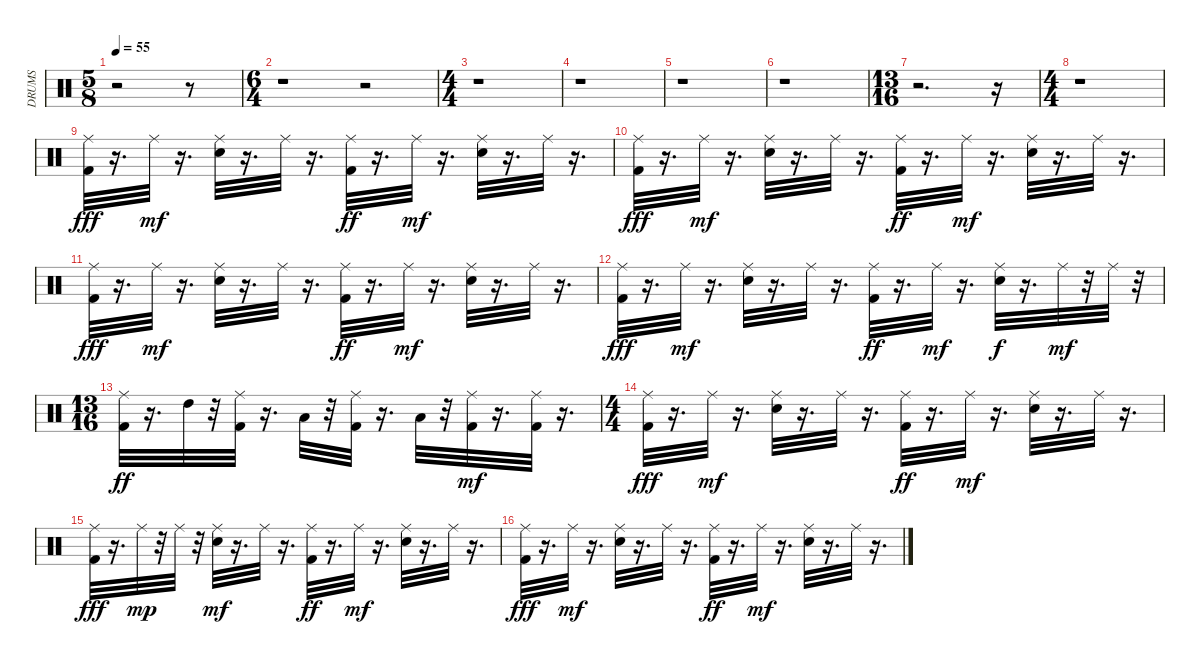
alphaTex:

\track ("DRUMS            " "DRUMS     ") {instrument percussion}
\staff {score}
\articulation defaults
\ts (5 8)
\tempo 55
\clef neutral
\ks c
r.2{dy fff} r.8 |
\ts (6 4)
r.1 r.2 |
\ts (4 4)
r.1 |
r.1 |
r.1 |
r.1 |
\ts (13 16)
r.2{d} r.16 |
\ts (4 4)
r.1 |
("Ride (middle)" "Kick (hit) 2").32 r.16{d} "Ride (middle)".32{dy mf} r.16{d} ("Ride (middle)" "Snare (hit) 2").32 r.16{d} "Ride (middle)".32 r.16{d} ("Ride (middle)" "Kick (hit) 2").32{dy ff} r.16{d} "Ride (middle)".32{dy mf} r.16{d} ("Ride (middle)" "Snare (hit) 2").32 r.16{d} "Ride (middle)".32 r.16{d} |
("Ride (middle)" "Kick (hit) 2").32{dy fff} r.16{d} "Ride (middle)".32{dy mf} r.16{d} ("Ride (middle)" "Snare (hit) 2").32 r.16{d} "Ride (middle)".32 r.16{d} ("Ride (middle)" "Kick (hit) 2").32{dy ff} r.16{d} "Ride (middle)".32{dy mf} r.16{d} ("Ride (middle)" "Snare (hit) 2").32 r.16{d} "Ride (middle)".32 r.16{d} |
("Ride (middle)" "Kick (hit) 2").32{dy fff} r.16{d} "Ride (middle)".32{dy mf} r.16{d} ("Ride (middle)" "Snare (hit) 2").32 r.16{d} "Ride (middle)".32 r.16{d} ("Ride (middle)" "Kick (hit) 2").32{dy ff} r.16{d} "Ride (middle)".32{dy mf} r.16{d} ("Ride (middle)" "Snare (hit) 2").32 r.16{d} "Ride (middle)".32 r.16{d} |
("Ride (middle)" "Kick (hit) 2").32{dy fff} r.16{d} "Ride (middle)".32{dy mf} r.16{d} ("Ride (middle)" "Snare (hit) 2").32 r.16{d} "Ride (middle)".32 r.16{d} ("Ride (middle)" "Kick (hit) 2").32{dy ff} r.16{d} "Ride (middle)".32{dy mf} r.16{d} ("Ride (middle)" "Snare (hit) 2").32{dy f} r.16{d} "Ride (middle)".32{dy mf} r.32 "Ride (middle)".32 r.32 |
\ts (13 16)
("Kick (hit) 2" "Ride (middle)").32{dy ff} r.16{d} "High Tom (hit)".32 r.32 ("Kick (hit) 2" "Ride (middle)").32 r.16{d} "Low Tom (hit)".32 r.32 ("Kick (hit) 2" "Ride (middle)").32 r.16{d} "Low Floor Tom (hit)".32 r.32 ("Kick (hit) 2" "Ride (middle)").32{dy mf} r.16{d} ("Kick (hit) 2" "Ride (middle)").32 r.16{d} |
\ts (4 4)
("Ride (middle)" "Kick (hit) 2").32{dy fff} r.16{d} "Ride (middle)".32{dy mf} r.16{d} ("Ride (middle)" "Snare (hit) 2").32 r.16{d} "Ride (middle)".32 r.16{d} ("Ride (middle)" "Kick (hit) 2").32{dy ff} r.16{d} "Ride (middle)".32{dy mf} r.16{d} ("Ride (middle)" "Snare (hit) 2").32 r.16{d} "Ride (middle)".32 r.16{d} |
("Ride (middle)" "Kick (hit) 2").32{dy fff} r.16{d} "Ride (middle)".32{dy mp} r.32 "Ride (middle)".32 r.32 ("Snare (hit) 2" "Ride (middle)").32{dy mf} r.16{d} "Ride (middle)".32 r.16{d} ("Ride (middle)" "Kick (hit) 2").32{dy ff} r.16{d} "Ride (middle)".32{dy mf} r.16{d} ("Snare (hit) 2" "Ride (middle)").32 r.16{d} "Ride (middle)".32 r.16{d} |
("Ride (middle)" "Kick (hit) 2").32{dy fff} r.16{d} "Ride (middle)".32{dy mf} r.16{d} ("Ride (middle)" "Snare (hit) 2").32 r.16{d} "Ride (middle)".32 r.16{d} ("Ride (middle)" "Kick (hit) 2").32{dy ff} r.16{d} "Ride (middle)".32{dy mf} r.16{d} ("Ride (middle)" "Snare (hit) 2").32 r.16{d} "Ride (middle)".32 r.16{d}
